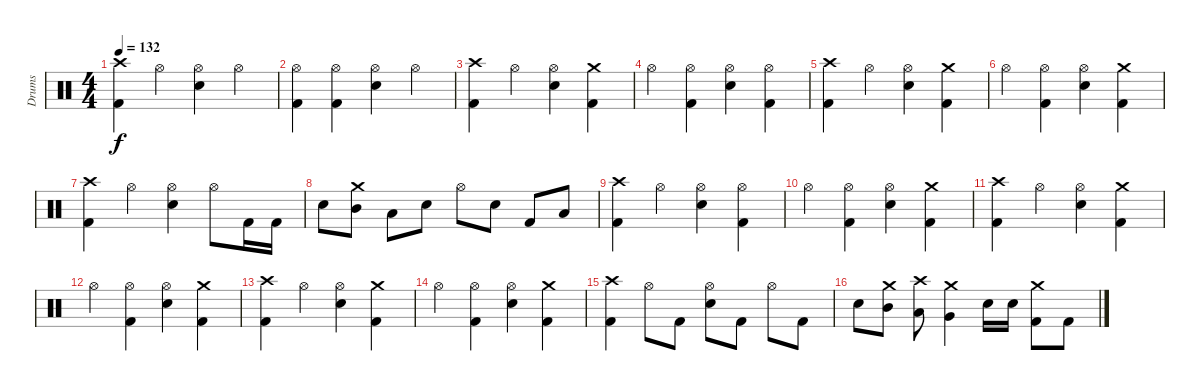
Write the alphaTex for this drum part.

\track ("Drums" "Drums") {instrument percussion}
\staff {score}
\articulation defaults
\ts (4 4)
\tempo 132
\clef neutral
\ks c
("Crash high (hit)" "Kick (hit) 2").4{dy f} "Hi-Hat (open)".4 ("Hi-Hat (open)" "Electric Snare (hit)").4 "Hi-Hat (open)".4 |
("Hi-Hat (open)" "Kick (hit) 2").4 ("Hi-Hat (open)" "Kick (hit) 2").4 ("Hi-Hat (open)" "Electric Snare (hit)").4 "Hi-Hat (open)".4 |
("Crash high (hit)" "Kick (hit) 2").4 "Hi-Hat (open)".4 ("Hi-Hat (open)" "Electric Snare (hit)").4 ("Crash medium (hit)" "Kick (hit) 2").4 |
"Hi-Hat (open)".4 ("Hi-Hat (open)" "Kick (hit) 2").4 ("Hi-Hat (open)" "Electric Snare (hit)").4 ("Hi-Hat (open)" "Kick (hit) 2").4 |
("Crash high (hit)" "Kick (hit) 2").4 "Hi-Hat (open)".4 ("Hi-Hat (open)" "Electric Snare (hit)").4 ("Crash medium (hit)" "Kick (hit) 2").4 |
"Hi-Hat (open)".4 ("Hi-Hat (open)" "Kick (hit) 2").4 ("Hi-Hat (open)" "Electric Snare (hit)").4 ("Crash medium (hit)" "Kick (hit) 2").4 |
("Crash high (hit)" "Kick (hit) 2").4 "Hi-Hat (open)".4 ("Hi-Hat (open)" "Electric Snare (hit)").4 "Hi-Hat (open)".8 "Kick (hit) 2".16 "Kick (hit) 2".16 |
"Electric Snare (hit)".8 ("Crash medium (hit)" "Mid Tom (hit)").8 "Low Tom (hit)".8 "Electric Snare (hit)".8 "Hi-Hat (open)".8 "Electric Snare (hit)".8 "Kick (hit) 2".8 "Low Tom (hit)".8 |
("Crash high (hit)" "Kick (hit) 2").4 "Hi-Hat (open)".4 ("Hi-Hat (open)" "Electric Snare (hit)").4 ("Hi-Hat (open)" "Kick (hit) 2").4 |
"Hi-Hat (open)".4 ("Hi-Hat (open)" "Kick (hit) 2").4 ("Hi-Hat (open)" "Electric Snare (hit)").4 ("Crash medium (hit)" "Kick (hit) 2").4 |
("Crash high (hit)" "Kick (hit) 2").4 "Hi-Hat (open)".4 ("Hi-Hat (open)" "Electric Snare (hit)").4 ("Crash medium (hit)" "Kick (hit) 2").4 |
"Hi-Hat (open)".4 ("Hi-Hat (open)" "Kick (hit) 2").4 ("Hi-Hat (open)" "Electric Snare (hit)").4 ("Crash medium (hit)" "Kick (hit) 2").4 |
("Crash high (hit)" "Kick (hit) 2").4 "Hi-Hat (open)".4 ("Hi-Hat (open)" "Electric Snare (hit)").4 ("Crash medium (hit)" "Kick (hit) 2").4 |
"Hi-Hat (open)".4 ("Hi-Hat (open)" "Kick (hit) 2").4 ("Hi-Hat (open)" "Electric Snare (hit)").4 ("Crash medium (hit)" "Kick (hit) 2").4 |
("Crash high (hit)" "Kick (hit) 2").4 "Hi-Hat (open)".8 "Kick (hit) 2".8 ("Hi-Hat (open)" "Electric Snare (hit)").8 "Kick (hit) 2".8 "Hi-Hat (open)".8 "Kick (hit) 2".8 |
"Electric Snare (hit)".8 ("Crash medium (hit)" "Mid Tom (hit)").8 ("Crash high (hit)" "Low Tom (hit)").8 ("Crash medium (hit)" "Very Low Tom (hit)").4 "Electric Snare (hit)".16 "Electric Snare (hit)".16 ("Crash medium (hit)" "Kick (hit) 2").8 "Kick (hit) 2".8
